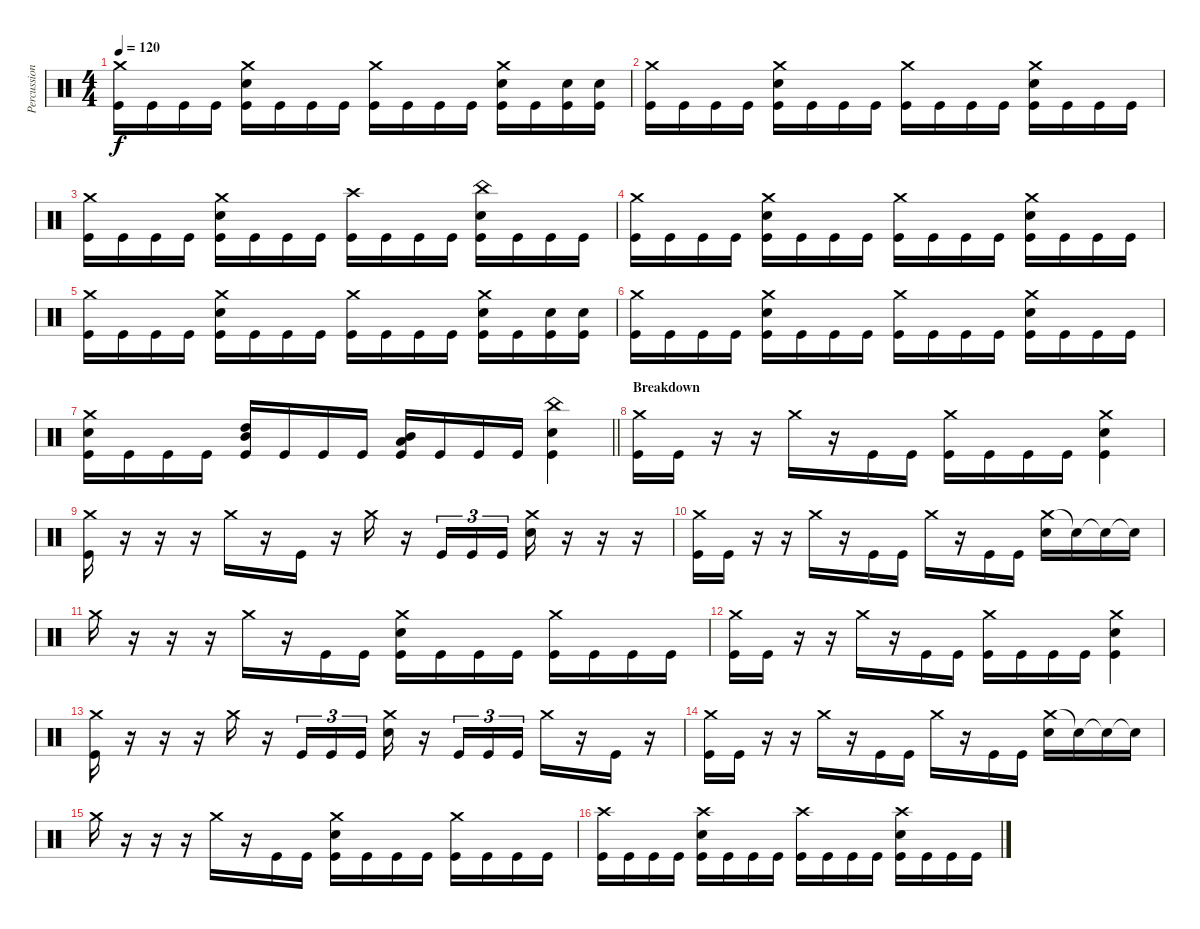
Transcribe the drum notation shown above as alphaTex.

\track ("Percussion" "Percussion") {instrument percussion}
\staff {score}
\articulation defaults
\ts (4 4)
\tempo 120
\clef neutral
\ks c
("Crash medium (hit)" "Kick (hit)").16{dy f} "Kick (hit)".16 "Kick (hit)".16 "Kick (hit)".16 ("Crash medium (hit)" "Snare (hit) 2" "Kick (hit)").16 "Kick (hit)".16 "Kick (hit)".16 "Kick (hit)".16 ("Crash medium (hit)" "Kick (hit)").16 "Kick (hit)".16 "Kick (hit)".16 "Kick (hit)".16 ("Crash medium (hit)" "Snare (hit) 2" "Kick (hit)").16 "Kick (hit)".16 ("Snare (hit) 2" "Kick (hit)").16 ("Snare (hit) 2" "Kick (hit)").16 |
("Crash medium (hit)" "Kick (hit)").16 "Kick (hit)".16 "Kick (hit)".16 "Kick (hit)".16 ("Crash medium (hit)" "Snare (hit) 2" "Kick (hit)").16 "Kick (hit)".16 "Kick (hit)".16 "Kick (hit)".16 ("Crash medium (hit)" "Kick (hit)").16 "Kick (hit)".16 "Kick (hit)".16 "Kick (hit)".16 ("Crash medium (hit)" "Snare (hit) 2" "Kick (hit)").16 "Kick (hit)".16 "Kick (hit)".16 "Kick (hit)".16 |
("Crash medium (hit)" "Kick (hit)").16 "Kick (hit)".16 "Kick (hit)".16 "Kick (hit)".16 ("Crash medium (hit)" "Snare (hit) 2" "Kick (hit)").16 "Kick (hit)".16 "Kick (hit)".16 "Kick (hit)".16 ("Crash high (hit)" "Kick (hit)").16 "Kick (hit)".16 "Kick (hit)".16 "Kick (hit)".16 ("China (hit)" "Snare (hit) 2" "Kick (hit)").16 "Kick (hit)".16 "Kick (hit)".16 "Kick (hit)".16 |
("Crash medium (hit)" "Kick (hit)").16 "Kick (hit)".16 "Kick (hit)".16 "Kick (hit)".16 ("Crash medium (hit)" "Snare (hit) 2" "Kick (hit)").16 "Kick (hit)".16 "Kick (hit)".16 "Kick (hit)".16 ("Crash medium (hit)" "Kick (hit)").16 "Kick (hit)".16 "Kick (hit)".16 "Kick (hit)".16 ("Crash medium (hit)" "Snare (hit) 2" "Kick (hit)").16 "Kick (hit)".16 "Kick (hit)".16 "Kick (hit)".16 |
("Crash medium (hit)" "Kick (hit)").16 "Kick (hit)".16 "Kick (hit)".16 "Kick (hit)".16 ("Crash medium (hit)" "Snare (hit) 2" "Kick (hit)").16 "Kick (hit)".16 "Kick (hit)".16 "Kick (hit)".16 ("Crash medium (hit)" "Kick (hit)").16 "Kick (hit)".16 "Kick (hit)".16 "Kick (hit)".16 ("Crash medium (hit)" "Snare (hit) 2" "Kick (hit)").16 "Kick (hit)".16 ("Snare (hit) 2" "Kick (hit)").16 ("Snare (hit) 2" "Kick (hit)").16 |
("Crash medium (hit)" "Kick (hit)").16 "Kick (hit)".16 "Kick (hit)".16 "Kick (hit)".16 ("Crash medium (hit)" "Snare (hit) 2" "Kick (hit)").16 "Kick (hit)".16 "Kick (hit)".16 "Kick (hit)".16 ("Crash medium (hit)" "Kick (hit)").16 "Kick (hit)".16 "Kick (hit)".16 "Kick (hit)".16 ("Crash medium (hit)" "Snare (hit) 2" "Kick (hit)").16 "Kick (hit)".16 "Kick (hit)".16 "Kick (hit)".16 |
\barLineRight lightlight
("Crash medium (hit)" "Snare (hit) 2" "Kick (hit)").16 "Kick (hit)".16 "Kick (hit)".16 "Kick (hit)".16 ("Mid Tom (hit)" "High Tom (hit)" "Kick (hit)").16 "Kick (hit)".16 "Kick (hit)".16 "Kick (hit)".16 ("Low Tom (hit)" "Mid Tom (hit)" "Kick (hit)").16 "Kick (hit)".16 "Kick (hit)".16 "Kick (hit)".16 ("China (hit)" "Snare (hit) 2" "Kick (hit)").4 |
\section ("" "Breakdown")
("Crash medium (hit)" "Kick (hit)").16 "Kick (hit)".16 r.16 r.16 "Crash medium (hit)".16 r.16 "Kick (hit)".16 "Kick (hit)".16 ("Crash medium (hit)" "Kick (hit)").16 "Kick (hit)".16 "Kick (hit)".16 "Kick (hit)".16 ("Crash medium (hit)" "Snare (hit) 2" "Kick (hit)").4 |
("Crash medium (hit)" "Kick (hit)").16 r.16 r.16 r.16 "Crash medium (hit)".16 r.16 "Kick (hit)".16 r.16 "Crash medium (hit)".16 r.16 "Kick (hit)".16{tu (3 2)} "Kick (hit)".16{tu (3 2)} "Kick (hit)".16{tu (3 2)} ("Crash medium (hit)" "Snare (hit) 2").16 r.16 r.16 r.16 |
("Crash medium (hit)" "Kick (hit)").16 "Kick (hit)".16 r.16 r.16 "Crash medium (hit)".16 r.16 "Kick (hit)".16 "Kick (hit)".16 "Crash medium (hit)".16 r.16 "Kick (hit)".16 "Kick (hit)".16 ("Crash medium (hit)" "Snare (hit) 2").16 "Snare (hit)"{t}.16 "Snare (hit)"{t}.16 "Snare (hit)"{t}.16 |
"Crash medium (hit)".16 r.16 r.16 r.16 "Crash medium (hit)".16 r.16 "Kick (hit)".16 "Kick (hit)".16 ("Crash medium (hit)" "Snare (hit) 2" "Kick (hit)").16 "Kick (hit)".16 "Kick (hit)".16 "Kick (hit)".16 ("Crash medium (hit)" "Kick (hit)").16 "Kick (hit)".16 "Kick (hit)".16 "Kick (hit)".16 |
("Crash medium (hit)" "Kick (hit)").16 "Kick (hit)".16 r.16 r.16 "Crash medium (hit)".16 r.16 "Kick (hit)".16 "Kick (hit)".16 ("Crash medium (hit)" "Kick (hit)").16 "Kick (hit)".16 "Kick (hit)".16 "Kick (hit)".16 ("Crash medium (hit)" "Snare (hit) 2" "Kick (hit)").4 |
("Crash medium (hit)" "Kick (hit)").16 r.16 r.16 r.16 "Crash medium (hit)".16 r.16 "Kick (hit)".16{tu (3 2)} "Kick (hit)".16{tu (3 2)} "Kick (hit)".16{tu (3 2)} ("Crash medium (hit)" "Snare (hit) 2").16 r.16 "Kick (hit)".16{tu (3 2)} "Kick (hit)".16{tu (3 2)} "Kick (hit)".16{tu (3 2)} "Crash medium (hit)".16 r.16 "Kick (hit)".16 r.16 |
("Crash medium (hit)" "Kick (hit)").16 "Kick (hit)".16 r.16 r.16 "Crash medium (hit)".16 r.16 "Kick (hit)".16 "Kick (hit)".16 "Crash medium (hit)".16 r.16 "Kick (hit)".16 "Kick (hit)".16 ("Crash medium (hit)" "Snare (hit) 2").16 "Snare (hit)"{t}.16 "Snare (hit)"{t}.16 "Snare (hit)"{t}.16 |
"Crash medium (hit)".16 r.16 r.16 r.16 "Crash medium (hit)".16 r.16 "Kick (hit)".16 "Kick (hit)".16 ("Crash medium (hit)" "Snare (hit) 2" "Kick (hit)").16 "Kick (hit)".16 "Kick (hit)".16 "Kick (hit)".16 ("Crash medium (hit)" "Kick (hit)").16 "Kick (hit)".16 "Kick (hit)".16 "Kick (hit)".16 |
("Crash high (hit)" "Kick (hit)").16 "Kick (hit)".16 "Kick (hit)".16 "Kick (hit)".16 ("Crash high (hit)" "Snare (hit) 2" "Kick (hit)").16 "Kick (hit)".16 "Kick (hit)".16 "Kick (hit)".16 ("Crash high (hit)" "Kick (hit)").16 "Kick (hit)".16 "Kick (hit)".16 "Kick (hit)".16 ("Crash high (hit)" "Snare (hit) 2" "Kick (hit)").16 "Kick (hit)".16 "Kick (hit)".16 "Kick (hit)".16
